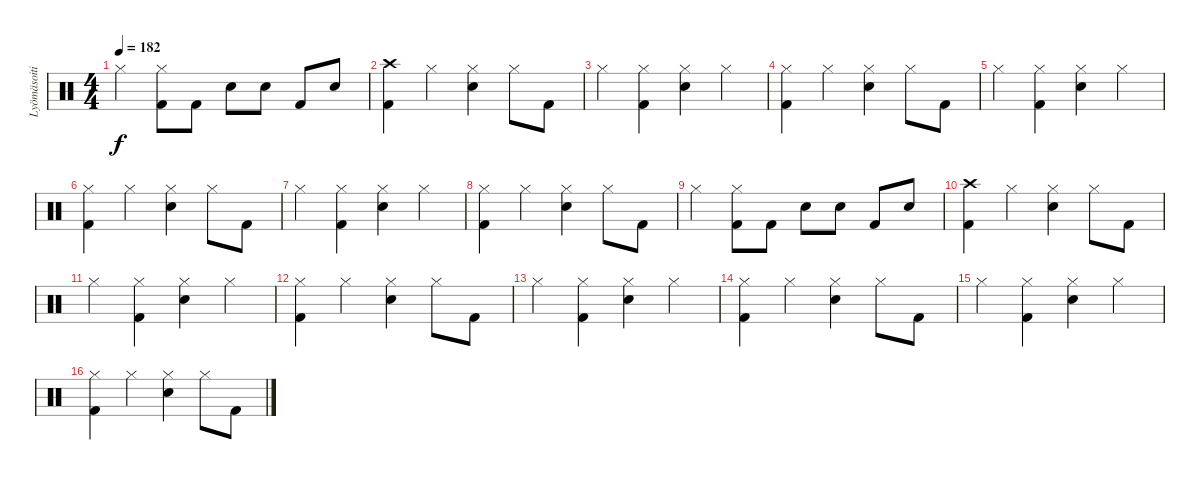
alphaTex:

\track ("Lyömäsoitin" "Lyömäsoiti") {instrument percussion}
\staff {score}
\articulation defaults
\ts (4 4)
\tempo 182
\clef neutral
\ks c "Hi-Hat (closed)".4{dy f}
("Hi-Hat (closed)" "Kick (hit) 2").8 "Kick (hit) 2".8 "Electric Snare (hit)".8 "Electric Snare (hit)".8 "Kick (hit) 2".8 "Electric Snare (hit)".8 |
("Crash high (hit)" "Kick (hit) 2").4 "Hi-Hat (closed)".4 ("Hi-Hat (closed)" "Electric Snare (hit)").4 "Hi-Hat (closed)".8 "Kick (hit) 2".8 |
"Hi-Hat (closed)".4 ("Hi-Hat (closed)" "Kick (hit) 2").4 ("Hi-Hat (closed)" "Electric Snare (hit)").4 "Hi-Hat (closed)".4 |
("Hi-Hat (closed)" "Kick (hit) 2").4 "Hi-Hat (closed)".4 ("Hi-Hat (closed)" "Electric Snare (hit)").4 "Hi-Hat (closed)".8 "Kick (hit) 2".8 |
"Hi-Hat (closed)".4 ("Hi-Hat (closed)" "Kick (hit) 2").4 ("Hi-Hat (closed)" "Electric Snare (hit)").4 "Hi-Hat (closed)".4 |
("Hi-Hat (closed)" "Kick (hit) 2").4 "Hi-Hat (closed)".4 ("Hi-Hat (closed)" "Electric Snare (hit)").4 "Hi-Hat (closed)".8 "Kick (hit) 2".8 |
"Hi-Hat (closed)".4 ("Hi-Hat (closed)" "Kick (hit) 2").4 ("Hi-Hat (closed)" "Electric Snare (hit)").4 "Hi-Hat (closed)".4 |
("Hi-Hat (closed)" "Kick (hit) 2").4 "Hi-Hat (closed)".4 ("Hi-Hat (closed)" "Electric Snare (hit)").4 "Hi-Hat (closed)".8 "Kick (hit) 2".8 |
"Hi-Hat (closed)".4 ("Hi-Hat (closed)" "Kick (hit) 2").8 "Kick (hit) 2".8 "Electric Snare (hit)".8 "Electric Snare (hit)".8 "Kick (hit) 2".8 "Electric Snare (hit)".8 |
("Crash high (hit)" "Kick (hit) 2").4 "Hi-Hat (closed)".4 ("Hi-Hat (closed)" "Electric Snare (hit)").4 "Hi-Hat (closed)".8 "Kick (hit) 2".8 |
"Hi-Hat (closed)".4 ("Hi-Hat (closed)" "Kick (hit) 2").4 ("Hi-Hat (closed)" "Electric Snare (hit)").4 "Hi-Hat (closed)".4 |
("Hi-Hat (closed)" "Kick (hit) 2").4 "Hi-Hat (closed)".4 ("Hi-Hat (closed)" "Electric Snare (hit)").4 "Hi-Hat (closed)".8 "Kick (hit) 2".8 |
"Hi-Hat (closed)".4 ("Hi-Hat (closed)" "Kick (hit) 2").4 ("Hi-Hat (closed)" "Electric Snare (hit)").4 "Hi-Hat (closed)".4 |
("Hi-Hat (closed)" "Kick (hit) 2").4 "Hi-Hat (closed)".4 ("Hi-Hat (closed)" "Electric Snare (hit)").4 "Hi-Hat (closed)".8 "Kick (hit) 2".8 |
"Hi-Hat (closed)".4 ("Hi-Hat (closed)" "Kick (hit) 2").4 ("Hi-Hat (closed)" "Electric Snare (hit)").4 "Hi-Hat (closed)".4 |
("Hi-Hat (closed)" "Kick (hit) 2").4 "Hi-Hat (closed)".4 ("Hi-Hat (closed)" "Electric Snare (hit)").4 "Hi-Hat (closed)".8 "Kick (hit) 2".8
